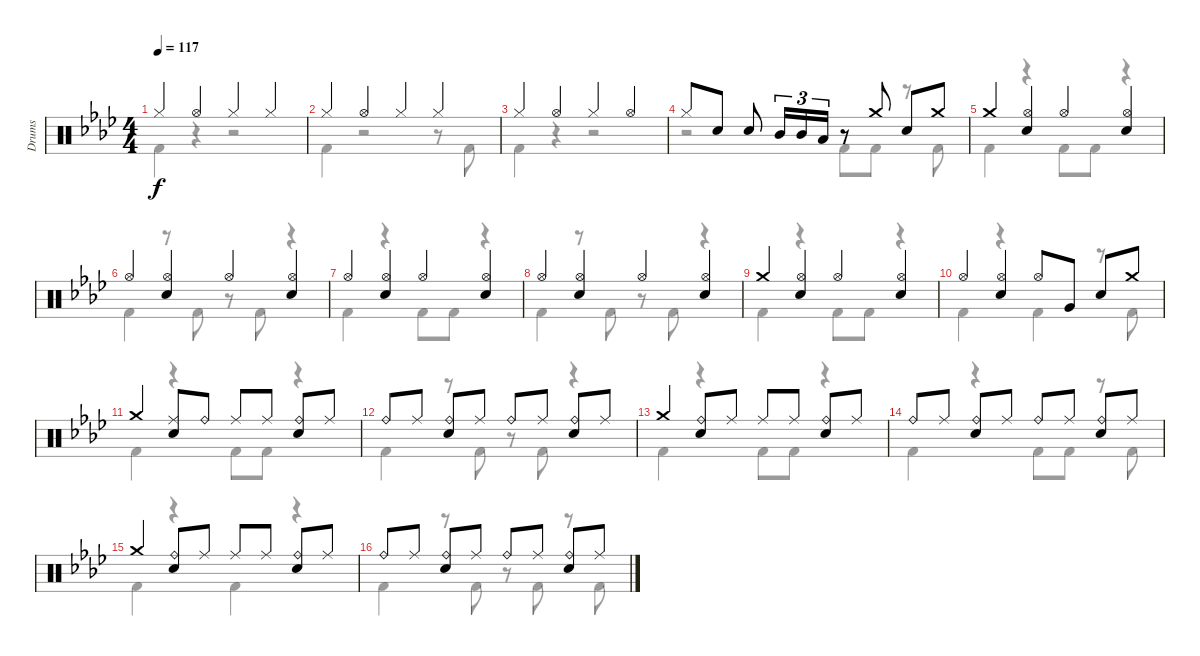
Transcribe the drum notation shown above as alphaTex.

\track ("Drums" "Drums") {instrument percussion}
\staff {score}
\articulation defaults
\voice
\ts (4 4)
\tempo 117
\clef neutral
\ks ab "Hi-Hat (closed)".4{dy f} "Hi-Hat (open)".4 "Hi-Hat (closed)".4 "Hi-Hat (closed)".4
|
"Hi-Hat (closed)".4 "Hi-Hat (open)".4 "Hi-Hat (closed)".4 "Hi-Hat (closed)".4 |
"Hi-Hat (closed)".4 "Hi-Hat (open)".4 "Hi-Hat (closed)".4 "Hi-Hat (open)".4 |
"Hi-Hat (closed)".8 "Snare (hit) 2".8 "Snare (hit) 2".8 "Mid Tom (hit)".16{tu (3 2)} "Mid Tom (hit)".16{tu (3 2)} "Low Tom (hit)".16{tu (3 2)} r.8 "Crash medium (hit)".8 "Snare (hit) 2".8 "Crash medium (hit)".8 |
"Crash medium (hit)".4 ("Hi-Hat (open)" "Snare (hit) 2").4 "Hi-Hat (open)".4 ("Hi-Hat (open)" "Snare (hit) 2").4 |
"Hi-Hat (open)".4 ("Hi-Hat (open)" "Snare (hit) 2").4 "Hi-Hat (open)".4 ("Hi-Hat (open)" "Snare (hit) 2").4 |
"Hi-Hat (open)".4 ("Hi-Hat (open)" "Snare (hit) 2").4 "Hi-Hat (open)".4 ("Hi-Hat (open)" "Snare (hit) 2").4 |
"Hi-Hat (open)".4 ("Hi-Hat (open)" "Snare (hit) 2").4 "Hi-Hat (open)".4 ("Hi-Hat (open)" "Snare (hit) 2").4 |
"Crash medium (hit)".4 ("Hi-Hat (open)" "Snare (hit) 2").4 "Hi-Hat (open)".4 ("Hi-Hat (open)" "Snare (hit) 2").4 |
"Hi-Hat (open)".4 ("Hi-Hat (open)" "Snare (hit) 2").4 "Hi-Hat (open)".8 "Very Low Tom (hit)".8 "Snare (hit) 2".8 "Crash medium (hit)".8 |
"Crash medium (hit)".4 ("Ride (middle)" "Snare (hit) 2").8 "Ride (bell)".8 "Ride (middle)".8 "Ride (middle)".8 ("Ride (bell)" "Snare (hit) 2").8 "Ride (middle)".8 |
"Ride (bell)".8 "Ride (middle)".8 ("Ride (bell)" "Snare (hit) 2").8 "Ride (middle)".8 "Ride (bell)".8 "Ride (middle)".8 ("Ride (bell)" "Snare (hit) 2").8 "Ride (middle)".8 |
"Crash medium (hit)".4 ("Ride (bell)" "Snare (hit) 2").8 "Ride (middle)".8 "Ride (middle)".8 "Ride (middle)".8 ("Ride (bell)" "Snare (hit) 2").8 "Ride (middle)".8 |
"Ride (bell)".8 "Ride (middle)".8 ("Ride (bell)" "Snare (hit) 2").8 "Ride (middle)".8 "Ride (bell)".8 "Ride (middle)".8 ("Ride (bell)" "Snare (hit) 2").8 "Ride (middle)".8 |
"Crash medium (hit)".4 ("Ride (bell)" "Snare (hit) 2").8 "Ride (middle)".8 "Ride (middle)".8 "Ride (middle)".8 ("Ride (bell)" "Snare (hit) 2").8 "Ride (middle)".8 |
"Ride (bell)".8 "Ride (middle)".8 ("Ride (bell)" "Snare (hit) 2").8 "Ride (middle)".8 "Ride (bell)".8 "Ride (middle)".8 ("Ride (bell)" "Snare (hit) 2").8 "Ride (middle)".8
\voice
\clef neutral
\ottava regular
\simile none
\ks ab "Kick (hit) 2".4{dy f}
r.4 r.2 |
"Kick (hit) 2".4 r.2 r.8 "Kick (hit) 2".8 |
"Kick (hit) 2".4 r.4 r.2 |
r.2 "Kick (hit) 2".8 "Kick (hit) 2".8 r.8 "Kick (hit) 2".8 |
"Kick (hit) 2".4 r.4 "Kick (hit) 2".8 "Kick (hit) 2".8 r.4 |
"Kick (hit) 2".4 r.8 "Kick (hit) 2".8 r.8 "Kick (hit) 2".8 r.4 |
"Kick (hit) 2".4 r.4 "Kick (hit) 2".8 "Kick (hit) 2".8 r.4 |
"Kick (hit) 2".4 r.8 "Kick (hit) 2".8 r.8 "Kick (hit) 2".8 r.4 |
"Kick (hit) 2".4 r.4 "Kick (hit) 2".8 "Kick (hit) 2".8 r.4 |
"Kick (hit) 2".4 r.4 "Kick (hit) 2".4 r.8 "Kick (hit) 2".8 |
"Kick (hit) 2".4 r.4 "Kick (hit) 2".8 "Kick (hit) 2".8 r.4 |
"Kick (hit) 2".4 r.8 "Kick (hit) 2".8 r.8 "Kick (hit) 2".8 r.4 |
"Kick (hit) 2".4 r.4 "Kick (hit) 2".8 "Kick (hit) 2".8 r.4 |
"Kick (hit) 2".4 r.4 "Kick (hit) 2".8 "Kick (hit) 2".8 r.8 "Kick (hit) 2".8 |
"Kick (hit) 2".4 r.4 "Kick (hit) 2".4 r.4 |
"Kick (hit) 2".4 r.8 "Kick (hit) 2".8 r.8 "Kick (hit) 2".8 r.8 "Kick (hit) 2".8
